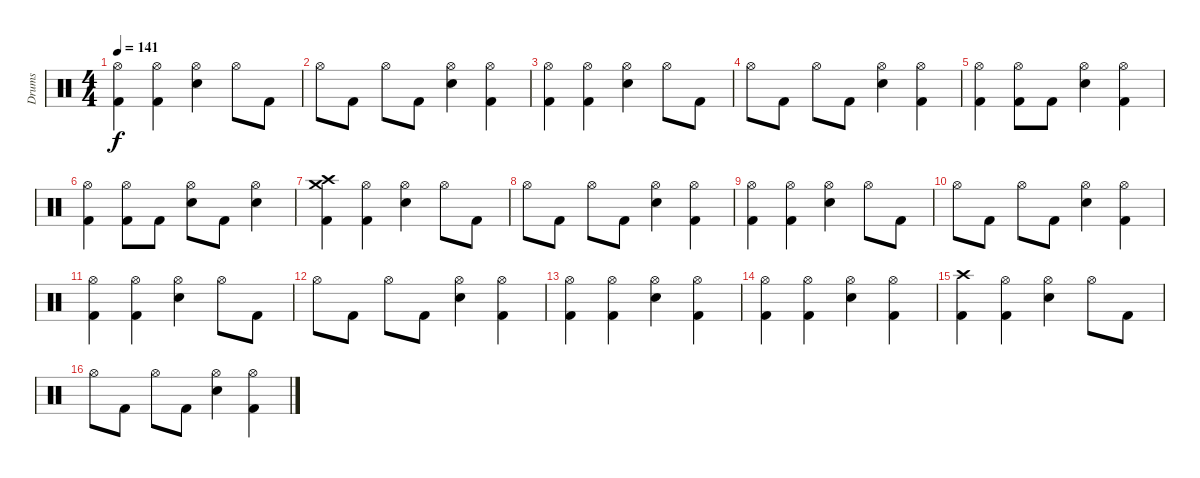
\track ("Drums" "Drums") {instrument percussion}
\staff {score}
\articulation defaults
\ts (4 4)
\tempo 141
\clef neutral
\ks c
("Hi-Hat (open)" "Kick (hit) 2").4{dy f} ("Hi-Hat (open)" "Kick (hit) 2").4 ("Hi-Hat (open)" "Snare (hit) 2").4 "Hi-Hat (open)".8 "Kick (hit) 2".8 |
"Hi-Hat (open)".8 "Kick (hit) 2".8 "Hi-Hat (open)".8 "Kick (hit) 2".8 ("Hi-Hat (open)" "Snare (hit) 2").4 ("Hi-Hat (open)" "Kick (hit) 2").4 |
("Hi-Hat (open)" "Kick (hit) 2").4 ("Hi-Hat (open)" "Kick (hit) 2").4 ("Hi-Hat (open)" "Snare (hit) 2").4 "Hi-Hat (open)".8 "Kick (hit) 2".8 |
"Hi-Hat (open)".8 "Kick (hit) 2".8 "Hi-Hat (open)".8 "Kick (hit) 2".8 ("Hi-Hat (open)" "Snare (hit) 2").4 ("Hi-Hat (open)" "Kick (hit) 2").4 |
("Hi-Hat (open)" "Kick (hit) 2").4 ("Hi-Hat (open)" "Kick (hit) 2").8 "Kick (hit) 2".8 ("Hi-Hat (open)" "Snare (hit) 2").4 ("Hi-Hat (open)" "Kick (hit) 2").4 |
("Hi-Hat (open)" "Kick (hit) 2").4 ("Hi-Hat (open)" "Kick (hit) 2").8 "Kick (hit) 2".8 ("Hi-Hat (open)" "Snare (hit) 2").8 "Kick (hit) 2".8 ("Hi-Hat (open)" "Snare (hit) 2").4 |
("Crash high (hit)" "Crash medium (hit)" "Kick (hit) 2").4 ("Hi-Hat (open)" "Kick (hit) 2").4 ("Hi-Hat (open)" "Snare (hit) 2").4 "Hi-Hat (open)".8 "Kick (hit) 2".8 |
"Hi-Hat (open)".8 "Kick (hit) 2".8 "Hi-Hat (open)".8 "Kick (hit) 2".8 ("Hi-Hat (open)" "Snare (hit) 2").4 ("Hi-Hat (open)" "Kick (hit) 2").4 |
("Hi-Hat (open)" "Kick (hit) 2").4 ("Hi-Hat (open)" "Kick (hit) 2").4 ("Hi-Hat (open)" "Snare (hit) 2").4 "Hi-Hat (open)".8 "Kick (hit) 2".8 |
"Hi-Hat (open)".8 "Kick (hit) 2".8 "Hi-Hat (open)".8 "Kick (hit) 2".8 ("Hi-Hat (open)" "Snare (hit) 2").4 ("Hi-Hat (open)" "Kick (hit) 2").4 |
("Hi-Hat (open)" "Kick (hit) 2").4 ("Hi-Hat (open)" "Kick (hit) 2").4 ("Hi-Hat (open)" "Snare (hit) 2").4 "Hi-Hat (open)".8 "Kick (hit) 2".8 |
"Hi-Hat (open)".8 "Kick (hit) 2".8 "Hi-Hat (open)".8 "Kick (hit) 2".8 ("Hi-Hat (open)" "Snare (hit) 2").4 ("Hi-Hat (open)" "Kick (hit) 2").4 |
("Hi-Hat (open)" "Kick (hit) 2").4 ("Hi-Hat (open)" "Kick (hit) 2").4 ("Hi-Hat (open)" "Snare (hit) 2").4 ("Hi-Hat (open)" "Kick (hit) 2").4 |
("Hi-Hat (open)" "Kick (hit) 2").4 ("Hi-Hat (open)" "Kick (hit) 2").4 ("Hi-Hat (open)" "Snare (hit) 2").4 ("Hi-Hat (open)" "Kick (hit) 2").4 |
("Crash high (hit)" "Kick (hit) 2").4 ("Hi-Hat (open)" "Kick (hit) 2").4 ("Hi-Hat (open)" "Snare (hit) 2").4 "Hi-Hat (open)".8 "Kick (hit) 2".8 |
"Hi-Hat (open)".8 "Kick (hit) 2".8 "Hi-Hat (open)".8 "Kick (hit) 2".8 ("Hi-Hat (open)" "Snare (hit) 2").4 ("Hi-Hat (open)" "Kick (hit) 2").4
